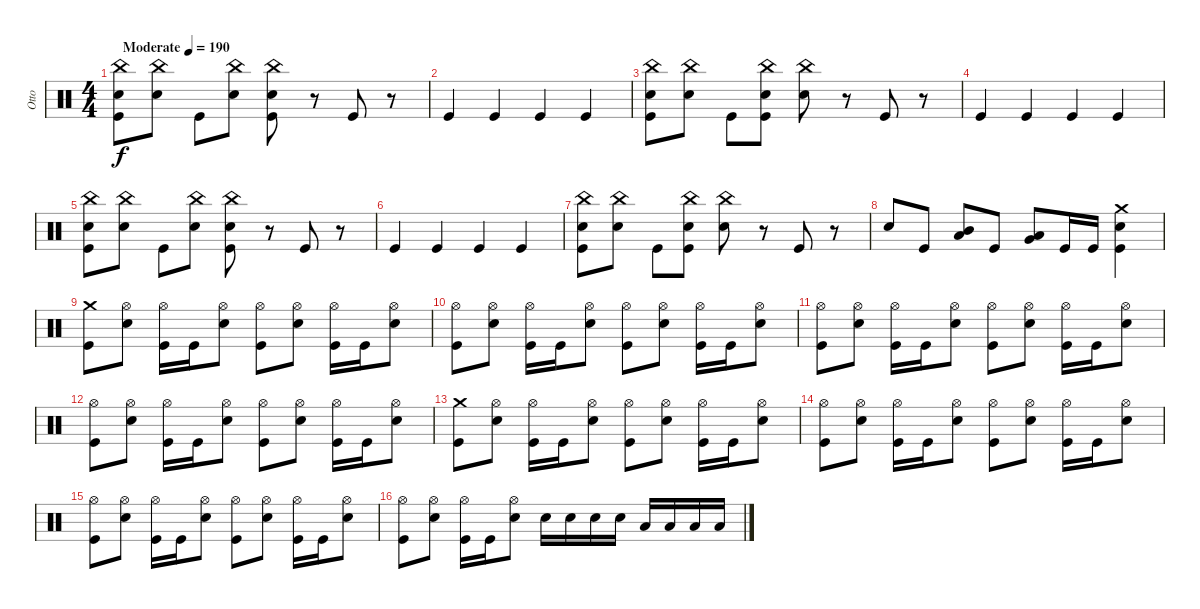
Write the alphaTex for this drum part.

\track ("Otto" "Otto") {instrument percussion}
\staff {score}
\articulation defaults
\ts (4 4)
\tempo (190 "Moderate")
\clef neutral
\ks c
("China (hit)" "Snare (hit) 2" "Kick (hit)").8{dy f} ("China (hit)" "Snare (hit) 2").8 "Kick (hit)".8 ("China (hit)" "Snare (hit) 2").8 ("China (hit)" "Snare (hit) 2" "Kick (hit)").8 r.8 "Kick (hit)".8 r.8 |
"Kick (hit)".4 "Kick (hit)".4 "Kick (hit)".4 "Kick (hit)".4 |
("China (hit)" "Snare (hit) 2" "Kick (hit)").8 ("China (hit)" "Snare (hit) 2").8 "Kick (hit)".8 ("China (hit)" "Snare (hit) 2" "Kick (hit)").8 ("China (hit)" "Snare (hit) 2").8 r.8 "Kick (hit)".8 r.8 |
"Kick (hit)".4 "Kick (hit)".4 "Kick (hit)".4 "Kick (hit)".4 |
("China (hit)" "Snare (hit) 2" "Kick (hit)").8 ("China (hit)" "Snare (hit) 2").8 "Kick (hit)".8 ("China (hit)" "Snare (hit) 2").8 ("China (hit)" "Snare (hit) 2" "Kick (hit)").8 r.8 "Kick (hit)".8 r.8 |
"Kick (hit)".4 "Kick (hit)".4 "Kick (hit)".4 "Kick (hit)".4 |
("China (hit)" "Snare (hit) 2" "Kick (hit)").8 ("China (hit)" "Snare (hit) 2").8 "Kick (hit)".8 ("China (hit)" "Snare (hit) 2" "Kick (hit)").8 ("China (hit)" "Snare (hit) 2").8 r.8 "Kick (hit)".8 r.8 |
"Snare (hit) 2".8 "Kick (hit)".8 ("Mid Tom (hit)" "Low Tom (hit)").8 "Kick (hit)".8 ("Very Low Tom (hit)" "Low Tom (hit)").8 "Kick (hit)".16 "Kick (hit)".16 ("Crash medium (hit)" "Snare (hit) 2" "Kick (hit)").4 |
("Crash medium (hit)" "Kick (hit)").8 ("Hi-Hat (open)" "Snare (hit) 2").8 ("Hi-Hat (open)" "Kick (hit)").16 "Kick (hit)".16 ("Hi-Hat (open)" "Snare (hit) 2").8 ("Hi-Hat (open)" "Kick (hit)").8 ("Hi-Hat (open)" "Snare (hit) 2").8 ("Hi-Hat (open)" "Kick (hit)").16 "Kick (hit)".16 ("Hi-Hat (open)" "Snare (hit) 2").8 |
("Hi-Hat (open)" "Kick (hit)").8 ("Hi-Hat (open)" "Snare (hit) 2").8 ("Hi-Hat (open)" "Kick (hit)").16 "Kick (hit)".16 ("Hi-Hat (open)" "Snare (hit) 2").8 ("Hi-Hat (open)" "Kick (hit)").8 ("Hi-Hat (open)" "Snare (hit) 2").8 ("Hi-Hat (open)" "Kick (hit)").16 "Kick (hit)".16 ("Hi-Hat (open)" "Snare (hit) 2").8 |
("Hi-Hat (open)" "Kick (hit)").8 ("Hi-Hat (open)" "Snare (hit) 2").8 ("Hi-Hat (open)" "Kick (hit)").16 "Kick (hit)".16 ("Hi-Hat (open)" "Snare (hit) 2").8 ("Hi-Hat (open)" "Kick (hit)").8 ("Hi-Hat (open)" "Snare (hit) 2").8 ("Hi-Hat (open)" "Kick (hit)").16 "Kick (hit)".16 ("Hi-Hat (open)" "Snare (hit) 2").8 |
("Hi-Hat (open)" "Kick (hit)").8 ("Hi-Hat (open)" "Snare (hit) 2").8 ("Hi-Hat (open)" "Kick (hit)").16 "Kick (hit)".16 ("Hi-Hat (open)" "Snare (hit) 2").8 ("Hi-Hat (open)" "Kick (hit)").8 ("Hi-Hat (open)" "Snare (hit) 2").8 ("Hi-Hat (open)" "Kick (hit)").16 "Kick (hit)".16 ("Hi-Hat (open)" "Snare (hit) 2").8 |
("Crash medium (hit)" "Kick (hit)").8 ("Hi-Hat (open)" "Snare (hit) 2").8 ("Hi-Hat (open)" "Kick (hit)").16 "Kick (hit)".16 ("Hi-Hat (open)" "Snare (hit) 2").8 ("Hi-Hat (open)" "Kick (hit)").8 ("Hi-Hat (open)" "Snare (hit) 2").8 ("Hi-Hat (open)" "Kick (hit)").16 "Kick (hit)".16 ("Hi-Hat (open)" "Snare (hit) 2").8 |
("Hi-Hat (open)" "Kick (hit)").8 ("Hi-Hat (open)" "Snare (hit) 2").8 ("Hi-Hat (open)" "Kick (hit)").16 "Kick (hit)".16 ("Hi-Hat (open)" "Snare (hit) 2").8 ("Hi-Hat (open)" "Kick (hit)").8 ("Hi-Hat (open)" "Snare (hit) 2").8 ("Hi-Hat (open)" "Kick (hit)").16 "Kick (hit)".16 ("Hi-Hat (open)" "Snare (hit) 2").8 |
("Hi-Hat (open)" "Kick (hit)").8 ("Hi-Hat (open)" "Snare (hit) 2").8 ("Hi-Hat (open)" "Kick (hit)").16 "Kick (hit)".16 ("Hi-Hat (open)" "Snare (hit) 2").8 ("Hi-Hat (open)" "Kick (hit)").8 ("Hi-Hat (open)" "Snare (hit) 2").8 ("Hi-Hat (open)" "Kick (hit)").16 "Kick (hit)".16 ("Hi-Hat (open)" "Snare (hit) 2").8 |
("Hi-Hat (open)" "Kick (hit)").8 ("Hi-Hat (open)" "Snare (hit) 2").8 ("Hi-Hat (open)" "Kick (hit)").16 "Kick (hit)".16 ("Hi-Hat (open)" "Snare (hit) 2").8 "Snare (hit) 2".16 "Snare (hit) 2".16 "Snare (hit) 2".16 "Snare (hit) 2".16 "Low Tom (hit)".16 "Low Tom (hit)".16 "Low Tom (hit)".16 "Low Tom (hit)".16
